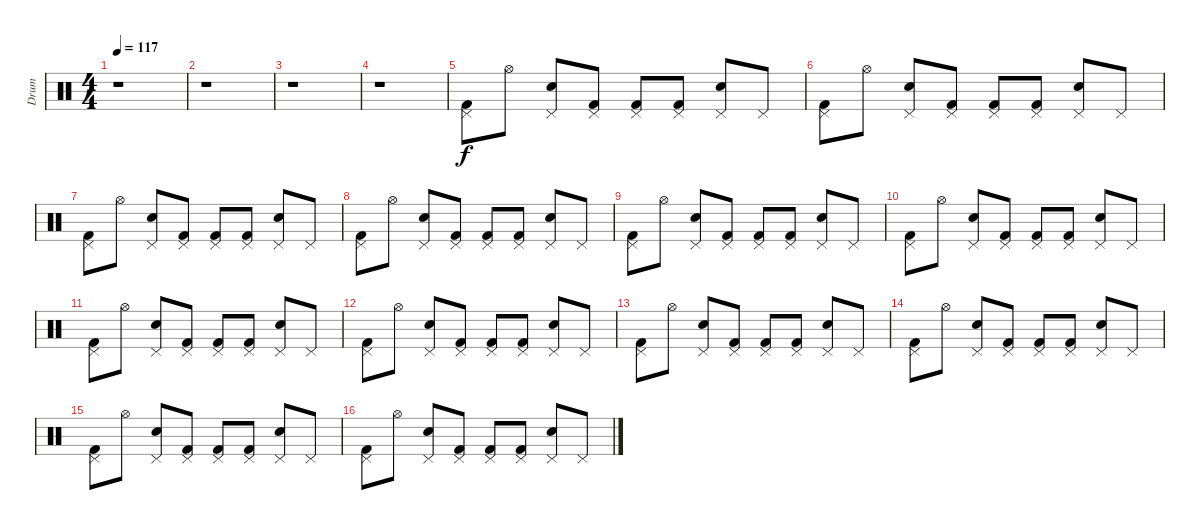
\track ("Drum" "Drum") {instrument percussion}
\staff {score}
\articulation defaults
\ts (4 4)
\tempo 117
\clef neutral
\ks c
r.1{dy f} |
r.1 |
r.1 |
r.1 |
("Pedal Hi-Hat (hit)" "Kick (hit) 2").8 "Hi-Hat (open)".8 ("Pedal Hi-Hat (hit)" "Snare (hit) 2").8 ("Pedal Hi-Hat (hit)" "Kick (hit) 2").8 ("Pedal Hi-Hat (hit)" "Kick (hit) 2").8 ("Pedal Hi-Hat (hit)" "Kick (hit) 2").8 ("Pedal Hi-Hat (hit)" "Snare (hit) 2").8 "Pedal Hi-Hat (hit)".8 |
("Pedal Hi-Hat (hit)" "Kick (hit) 2").8 "Hi-Hat (open)".8 ("Pedal Hi-Hat (hit)" "Snare (hit) 2").8 ("Pedal Hi-Hat (hit)" "Kick (hit) 2").8 ("Pedal Hi-Hat (hit)" "Kick (hit) 2").8 ("Pedal Hi-Hat (hit)" "Kick (hit) 2").8 ("Pedal Hi-Hat (hit)" "Snare (hit) 2").8 "Pedal Hi-Hat (hit)".8 |
("Pedal Hi-Hat (hit)" "Kick (hit) 2").8 "Hi-Hat (open)".8 ("Pedal Hi-Hat (hit)" "Snare (hit) 2").8 ("Pedal Hi-Hat (hit)" "Kick (hit) 2").8 ("Pedal Hi-Hat (hit)" "Kick (hit) 2").8 ("Pedal Hi-Hat (hit)" "Kick (hit) 2").8 ("Pedal Hi-Hat (hit)" "Snare (hit) 2").8 "Pedal Hi-Hat (hit)".8 |
("Pedal Hi-Hat (hit)" "Kick (hit) 2").8 "Hi-Hat (open)".8 ("Pedal Hi-Hat (hit)" "Snare (hit) 2").8 ("Pedal Hi-Hat (hit)" "Kick (hit) 2").8 ("Pedal Hi-Hat (hit)" "Kick (hit) 2").8 ("Pedal Hi-Hat (hit)" "Kick (hit) 2").8 ("Pedal Hi-Hat (hit)" "Snare (hit) 2").8 "Pedal Hi-Hat (hit)".8 |
("Pedal Hi-Hat (hit)" "Kick (hit) 2").8 "Hi-Hat (open)".8 ("Pedal Hi-Hat (hit)" "Snare (hit) 2").8 ("Pedal Hi-Hat (hit)" "Kick (hit) 2").8 ("Pedal Hi-Hat (hit)" "Kick (hit) 2").8 ("Pedal Hi-Hat (hit)" "Kick (hit) 2").8 ("Pedal Hi-Hat (hit)" "Snare (hit) 2").8 "Pedal Hi-Hat (hit)".8 |
("Pedal Hi-Hat (hit)" "Kick (hit) 2").8 "Hi-Hat (open)".8 ("Pedal Hi-Hat (hit)" "Snare (hit) 2").8 ("Pedal Hi-Hat (hit)" "Kick (hit) 2").8 ("Pedal Hi-Hat (hit)" "Kick (hit) 2").8 ("Pedal Hi-Hat (hit)" "Kick (hit) 2").8 ("Pedal Hi-Hat (hit)" "Snare (hit) 2").8 "Pedal Hi-Hat (hit)".8 |
("Pedal Hi-Hat (hit)" "Kick (hit) 2").8 "Hi-Hat (open)".8 ("Pedal Hi-Hat (hit)" "Snare (hit) 2").8 ("Pedal Hi-Hat (hit)" "Kick (hit) 2").8 ("Pedal Hi-Hat (hit)" "Kick (hit) 2").8 ("Pedal Hi-Hat (hit)" "Kick (hit) 2").8 ("Pedal Hi-Hat (hit)" "Snare (hit) 2").8 "Pedal Hi-Hat (hit)".8 |
("Pedal Hi-Hat (hit)" "Kick (hit) 2").8 "Hi-Hat (open)".8 ("Pedal Hi-Hat (hit)" "Snare (hit) 2").8 ("Pedal Hi-Hat (hit)" "Kick (hit) 2").8 ("Pedal Hi-Hat (hit)" "Kick (hit) 2").8 ("Pedal Hi-Hat (hit)" "Kick (hit) 2").8 ("Pedal Hi-Hat (hit)" "Snare (hit) 2").8 "Pedal Hi-Hat (hit)".8 |
("Pedal Hi-Hat (hit)" "Kick (hit) 2").8 "Hi-Hat (open)".8 ("Pedal Hi-Hat (hit)" "Snare (hit) 2").8 ("Pedal Hi-Hat (hit)" "Kick (hit) 2").8 ("Pedal Hi-Hat (hit)" "Kick (hit) 2").8 ("Pedal Hi-Hat (hit)" "Kick (hit) 2").8 ("Pedal Hi-Hat (hit)" "Snare (hit) 2").8 "Pedal Hi-Hat (hit)".8 |
("Pedal Hi-Hat (hit)" "Kick (hit) 2").8 "Hi-Hat (open)".8 ("Pedal Hi-Hat (hit)" "Snare (hit) 2").8 ("Pedal Hi-Hat (hit)" "Kick (hit) 2").8 ("Pedal Hi-Hat (hit)" "Kick (hit) 2").8 ("Pedal Hi-Hat (hit)" "Kick (hit) 2").8 ("Pedal Hi-Hat (hit)" "Snare (hit) 2").8 "Pedal Hi-Hat (hit)".8 |
("Pedal Hi-Hat (hit)" "Kick (hit) 2").8 "Hi-Hat (open)".8 ("Pedal Hi-Hat (hit)" "Snare (hit) 2").8 ("Pedal Hi-Hat (hit)" "Kick (hit) 2").8 ("Pedal Hi-Hat (hit)" "Kick (hit) 2").8 ("Pedal Hi-Hat (hit)" "Kick (hit) 2").8 ("Pedal Hi-Hat (hit)" "Snare (hit) 2").8 "Pedal Hi-Hat (hit)".8 |
("Pedal Hi-Hat (hit)" "Kick (hit) 2").8 "Hi-Hat (open)".8 ("Pedal Hi-Hat (hit)" "Snare (hit) 2").8 ("Pedal Hi-Hat (hit)" "Kick (hit) 2").8 ("Pedal Hi-Hat (hit)" "Kick (hit) 2").8 ("Pedal Hi-Hat (hit)" "Kick (hit) 2").8 ("Pedal Hi-Hat (hit)" "Snare (hit) 2").8 "Pedal Hi-Hat (hit)".8
